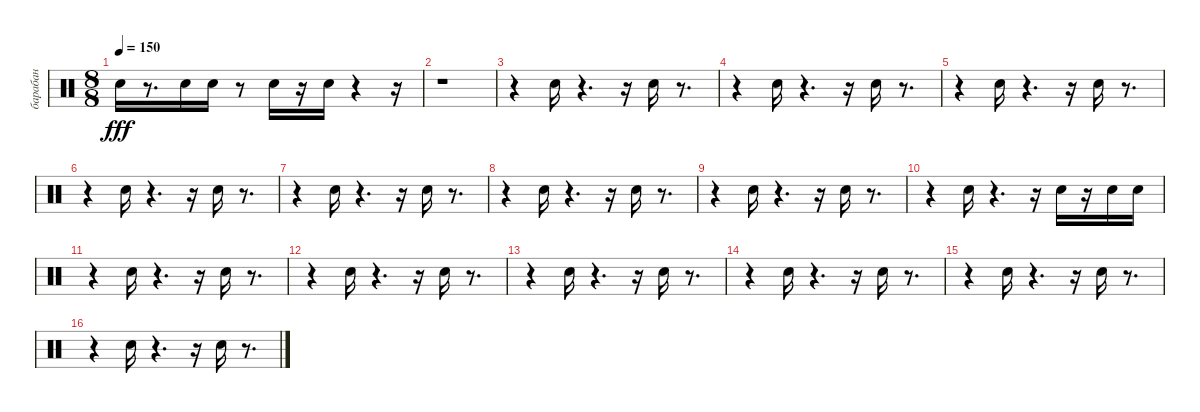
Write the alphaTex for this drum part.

\track ("барабан" "барабан") {instrument percussion}
\staff {score}
\articulation defaults
\ts (8 8)
\tempo 150
\clef neutral
\ks c "Snare (hit) 2".16{dy fff}
r.8{d} "Snare (hit) 2".16 "Snare (hit) 2".16 r.8 "Snare (hit) 2".16 r.16 "Snare (hit) 2".16 r.4 r.16 |
r.1 |
r.4 "Snare (hit) 2".16 r.4{d} r.16 "Snare (hit) 2".16 r.8{d} |
r.4 "Snare (hit) 2".16 r.4{d} r.16 "Snare (hit) 2".16 r.8{d} |
r.4 "Snare (hit) 2".16 r.4{d} r.16 "Snare (hit) 2".16 r.8{d} |
r.4 "Snare (hit) 2".16 r.4{d} r.16 "Snare (hit) 2".16 r.8{d} |
r.4 "Snare (hit) 2".16 r.4{d} r.16 "Snare (hit) 2".16 r.8{d} |
r.4 "Snare (hit) 2".16 r.4{d} r.16 "Snare (hit) 2".16 r.8{d} |
r.4 "Snare (hit) 2".16 r.4{d} r.16 "Snare (hit) 2".16 r.8{d} |
r.4 "Snare (hit) 2".16 r.4{d} r.16 "Snare (hit) 2".16 r.16 "Snare (hit) 2".16 "Snare (hit) 2".16 |
r.4 "Snare (hit) 2".16 r.4{d} r.16 "Snare (hit) 2".16 r.8{d} |
r.4 "Snare (hit) 2".16 r.4{d} r.16 "Snare (hit) 2".16 r.8{d} |
r.4 "Snare (hit) 2".16 r.4{d} r.16 "Snare (hit) 2".16 r.8{d} |
r.4 "Snare (hit) 2".16 r.4{d} r.16 "Snare (hit) 2".16 r.8{d} |
r.4 "Snare (hit) 2".16 r.4{d} r.16 "Snare (hit) 2".16 r.8{d} |
r.4 "Snare (hit) 2".16 r.4{d} r.16 "Snare (hit) 2".16 r.8{d}
